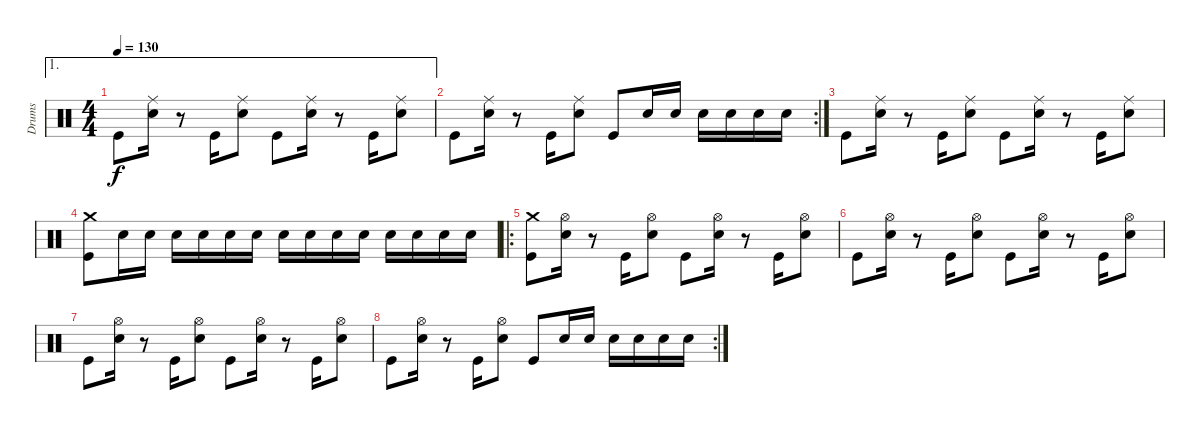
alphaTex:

\track ("Drums" "Drums") {instrument percussion}
\staff {score}
\articulation defaults
\ae 1
\ts (4 4)
\tempo 130
\clef neutral
\ks c "Kick (hit)".8{dy f}
("Ride (middle)" "Electric Snare (hit)").16 r.8 "Kick (hit)".16 ("Ride (middle)" "Electric Snare (hit)").8 "Kick (hit)".8 ("Ride (middle)" "Electric Snare (hit)").16 r.8 "Kick (hit)".16 ("Ride (middle)" "Electric Snare (hit)").8 |
\rc 2 "Kick (hit)".8
("Ride (middle)" "Electric Snare (hit)").16 r.8 "Kick (hit)".16 ("Ride (middle)" "Electric Snare (hit)").8 "Kick (hit)".8 "Electric Snare (hit)".16 "Electric Snare (hit)".16 "Electric Snare (hit)".16 "Electric Snare (hit)".16 "Electric Snare (hit)".16 "Electric Snare (hit)".16 |
"Kick (hit)".8 ("Ride (middle)" "Electric Snare (hit)").16 r.8 "Kick (hit)".16 ("Ride (middle)" "Electric Snare (hit)").8 "Kick (hit)".8 ("Ride (middle)" "Electric Snare (hit)").16 r.8 "Kick (hit)".16 ("Ride (middle)" "Electric Snare (hit)").8 |
("Crash medium (hit)" "Kick (hit)").8 "Electric Snare (hit)".16 "Electric Snare (hit)".16 "Electric Snare (hit)".16 "Electric Snare (hit)".16 "Electric Snare (hit)".16 "Electric Snare (hit)".16 "Electric Snare (hit)".16 "Electric Snare (hit)".16 "Electric Snare (hit)".16 "Electric Snare (hit)".16 "Electric Snare (hit)".16 "Electric Snare (hit)".16 "Electric Snare (hit)".16 "Electric Snare (hit)".16 |
\ro
("Crash medium (hit)" "Kick (hit)").8 ("Hi-Hat (open)" "Electric Snare (hit)").16 r.8 "Kick (hit)".16 ("Hi-Hat (open)" "Electric Snare (hit)").8 "Kick (hit)".8 ("Hi-Hat (open)" "Electric Snare (hit)").16 r.8 "Kick (hit)".16 ("Hi-Hat (open)" "Electric Snare (hit)").8 |
"Kick (hit)".8 ("Hi-Hat (open)" "Electric Snare (hit)").16 r.8 "Kick (hit)".16 ("Hi-Hat (open)" "Electric Snare (hit)").8 "Kick (hit)".8 ("Hi-Hat (open)" "Electric Snare (hit)").16 r.8 "Kick (hit)".16 ("Hi-Hat (open)" "Electric Snare (hit)").8 |
"Kick (hit)".8 ("Hi-Hat (open)" "Electric Snare (hit)").16 r.8 "Kick (hit)".16 ("Hi-Hat (open)" "Electric Snare (hit)").8 "Kick (hit)".8 ("Hi-Hat (open)" "Electric Snare (hit)").16 r.8 "Kick (hit)".16 ("Hi-Hat (open)" "Electric Snare (hit)").8 |
\rc 2 "Kick (hit)".8
("Hi-Hat (open)" "Electric Snare (hit)").16 r.8 "Kick (hit)".16 ("Hi-Hat (open)" "Electric Snare (hit)").8 "Kick (hit)".8 "Electric Snare (hit)".16 "Electric Snare (hit)".16 "Electric Snare (hit)".16 "Electric Snare (hit)".16 "Electric Snare (hit)".16 "Electric Snare (hit)".16
